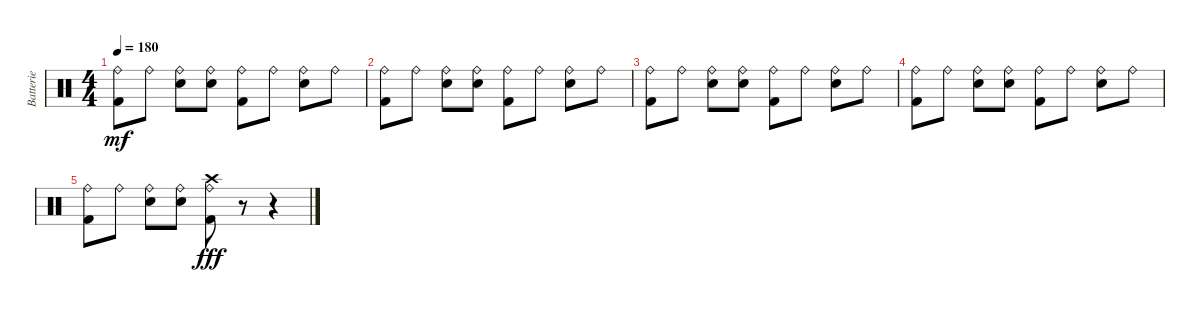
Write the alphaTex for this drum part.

\track ("Batterie" "Batterie") {instrument percussion}
\staff {score}
\articulation defaults
\ts (4 4)
\tempo 180
\clef neutral
\ks c
("Kick (hit) 2" "Ride (bell)").8{dy mf} "Ride (bell)".8 ("Electric Snare (hit)" "Ride (bell)").8 ("Electric Snare (hit)" "Ride (bell)").8 ("Kick (hit) 2" "Ride (bell)").8 "Ride (bell)".8 ("Electric Snare (hit)" "Ride (bell)").8 "Ride (bell)".8 |
("Kick (hit) 2" "Ride (bell)").8 "Ride (bell)".8 ("Electric Snare (hit)" "Ride (bell)").8 ("Electric Snare (hit)" "Ride (bell)").8 ("Kick (hit) 2" "Ride (bell)").8 "Ride (bell)".8 ("Electric Snare (hit)" "Ride (bell)").8 "Ride (bell)".8 |
("Kick (hit) 2" "Ride (bell)").8 "Ride (bell)".8 ("Electric Snare (hit)" "Ride (bell)").8 ("Electric Snare (hit)" "Ride (bell)").8 ("Kick (hit) 2" "Ride (bell)").8 "Ride (bell)".8 ("Electric Snare (hit)" "Ride (bell)").8 "Ride (bell)".8 |
("Kick (hit) 2" "Ride (bell)").8 "Ride (bell)".8 ("Electric Snare (hit)" "Ride (bell)").8 ("Electric Snare (hit)" "Ride (bell)").8 ("Kick (hit) 2" "Ride (bell)").8 "Ride (bell)".8 ("Electric Snare (hit)" "Ride (bell)").8 "Ride (bell)".8 |
("Kick (hit) 2" "Ride (bell)").8 "Ride (bell)".8 ("Electric Snare (hit)" "Ride (bell)").8 ("Electric Snare (hit)" "Ride (bell)").8 ("Kick (hit) 2" "Ride (bell)" "Crash high (hit)").8{dy fff} r.8 r.4
